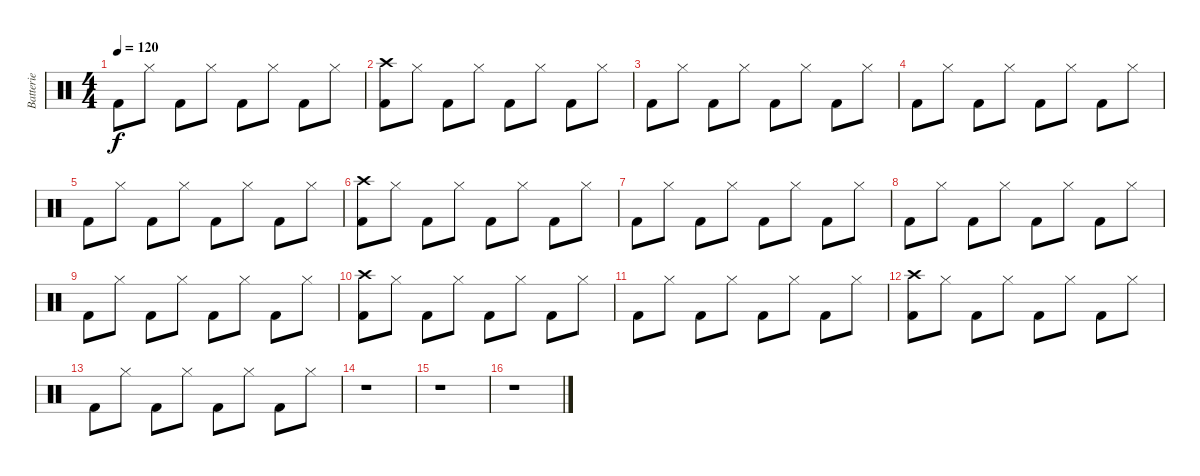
\track ("Batterie" "Batterie") {instrument percussion}
\staff {score}
\articulation defaults
\ts (4 4)
\tempo 120
\clef neutral
\ks c "Kick (hit) 2".8{dy f} "Hi-Hat (closed)".8 "Kick (hit) 2".8 "Hi-Hat (closed)".8 "Kick (hit) 2".8 "Hi-Hat (closed)".8 "Kick (hit) 2".8 "Hi-Hat (closed)".8
|
("Kick (hit) 2" "Crash high (hit)").8 "Hi-Hat (closed)".8 "Kick (hit) 2".8 "Hi-Hat (closed)".8 "Kick (hit) 2".8 "Hi-Hat (closed)".8 "Kick (hit) 2".8 "Hi-Hat (closed)".8 |
"Kick (hit) 2".8 "Hi-Hat (closed)".8 "Kick (hit) 2".8 "Hi-Hat (closed)".8 "Kick (hit) 2".8 "Hi-Hat (closed)".8 "Kick (hit) 2".8 "Hi-Hat (closed)".8 |
"Kick (hit) 2".8 "Hi-Hat (closed)".8 "Kick (hit) 2".8 "Hi-Hat (closed)".8 "Kick (hit) 2".8 "Hi-Hat (closed)".8 "Kick (hit) 2".8 "Hi-Hat (closed)".8 |
"Kick (hit) 2".8 "Hi-Hat (closed)".8 "Kick (hit) 2".8 "Hi-Hat (closed)".8 "Kick (hit) 2".8 "Hi-Hat (closed)".8 "Kick (hit) 2".8 "Hi-Hat (closed)".8 |
("Kick (hit) 2" "Crash high (hit)").8 "Hi-Hat (closed)".8 "Kick (hit) 2".8 "Hi-Hat (closed)".8 "Kick (hit) 2".8 "Hi-Hat (closed)".8 "Kick (hit) 2".8 "Hi-Hat (closed)".8 |
"Kick (hit) 2".8 "Hi-Hat (closed)".8 "Kick (hit) 2".8 "Hi-Hat (closed)".8 "Kick (hit) 2".8 "Hi-Hat (closed)".8 "Kick (hit) 2".8 "Hi-Hat (closed)".8 |
"Kick (hit) 2".8 "Hi-Hat (closed)".8 "Kick (hit) 2".8 "Hi-Hat (closed)".8 "Kick (hit) 2".8 "Hi-Hat (closed)".8 "Kick (hit) 2".8 "Hi-Hat (closed)".8 |
"Kick (hit) 2".8 "Hi-Hat (closed)".8 "Kick (hit) 2".8 "Hi-Hat (closed)".8 "Kick (hit) 2".8 "Hi-Hat (closed)".8 "Kick (hit) 2".8 "Hi-Hat (closed)".8 |
("Kick (hit) 2" "Crash high (hit)").8 "Hi-Hat (closed)".8 "Kick (hit) 2".8 "Hi-Hat (closed)".8 "Kick (hit) 2".8 "Hi-Hat (closed)".8 "Kick (hit) 2".8 "Hi-Hat (closed)".8 |
"Kick (hit) 2".8 "Hi-Hat (closed)".8 "Kick (hit) 2".8 "Hi-Hat (closed)".8 "Kick (hit) 2".8 "Hi-Hat (closed)".8 "Kick (hit) 2".8 "Hi-Hat (closed)".8 |
("Kick (hit) 2" "Crash high (hit)").8 "Hi-Hat (closed)".8 "Kick (hit) 2".8 "Hi-Hat (closed)".8 "Kick (hit) 2".8 "Hi-Hat (closed)".8 "Kick (hit) 2".8 "Hi-Hat (closed)".8 |
"Kick (hit) 2".8 "Hi-Hat (closed)".8 "Kick (hit) 2".8 "Hi-Hat (closed)".8 "Kick (hit) 2".8 "Hi-Hat (closed)".8 "Kick (hit) 2".8 "Hi-Hat (closed)".8 |
r.1 |
r.1 |
r.1
